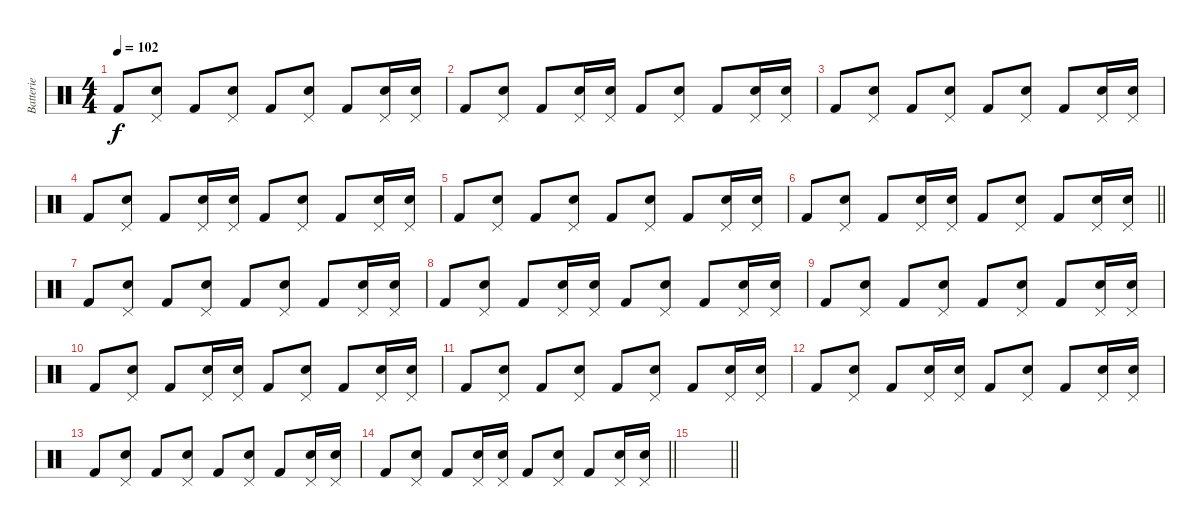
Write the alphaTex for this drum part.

\track ("Batterie" "Batterie") {instrument percussion}
\staff {score}
\articulation defaults
\ts (4 4)
\tempo 102
\clef neutral
\ks c "Kick (hit) 2".8{dy f}
("Snare (hit) 2" "Pedal Hi-Hat (hit)").8 "Kick (hit) 2".8 ("Snare (hit) 2" "Pedal Hi-Hat (hit)").8 "Kick (hit) 2".8 ("Snare (hit) 2" "Pedal Hi-Hat (hit)").8 "Kick (hit) 2".8 ("Snare (hit) 2" "Pedal Hi-Hat (hit)").16 ("Snare (hit) 2" "Pedal Hi-Hat (hit)").16 |
"Kick (hit) 2".8 ("Snare (hit) 2" "Pedal Hi-Hat (hit)").8 "Kick (hit) 2".8 ("Snare (hit) 2" "Pedal Hi-Hat (hit)").16 ("Snare (hit) 2" "Pedal Hi-Hat (hit)").16 "Kick (hit) 2".8 ("Snare (hit) 2" "Pedal Hi-Hat (hit)").8 "Kick (hit) 2".8 ("Snare (hit) 2" "Pedal Hi-Hat (hit)").16 ("Snare (hit) 2" "Pedal Hi-Hat (hit)").16 |
"Kick (hit) 2".8 ("Snare (hit) 2" "Pedal Hi-Hat (hit)").8 "Kick (hit) 2".8 ("Snare (hit) 2" "Pedal Hi-Hat (hit)").8 "Kick (hit) 2".8 ("Snare (hit) 2" "Pedal Hi-Hat (hit)").8 "Kick (hit) 2".8 ("Snare (hit) 2" "Pedal Hi-Hat (hit)").16 ("Snare (hit) 2" "Pedal Hi-Hat (hit)").16 |
"Kick (hit) 2".8 ("Snare (hit) 2" "Pedal Hi-Hat (hit)").8 "Kick (hit) 2".8 ("Snare (hit) 2" "Pedal Hi-Hat (hit)").16 ("Snare (hit) 2" "Pedal Hi-Hat (hit)").16 "Kick (hit) 2".8 ("Snare (hit) 2" "Pedal Hi-Hat (hit)").8 "Kick (hit) 2".8 ("Snare (hit) 2" "Pedal Hi-Hat (hit)").16 ("Snare (hit) 2" "Pedal Hi-Hat (hit)").16 |
"Kick (hit) 2".8 ("Snare (hit) 2" "Pedal Hi-Hat (hit)").8 "Kick (hit) 2".8 ("Snare (hit) 2" "Pedal Hi-Hat (hit)").8 "Kick (hit) 2".8 ("Snare (hit) 2" "Pedal Hi-Hat (hit)").8 "Kick (hit) 2".8 ("Snare (hit) 2" "Pedal Hi-Hat (hit)").16 ("Snare (hit) 2" "Pedal Hi-Hat (hit)").16 |
\barLineRight lightlight "Kick (hit) 2".8
("Snare (hit) 2" "Pedal Hi-Hat (hit)").8 "Kick (hit) 2".8 ("Snare (hit) 2" "Pedal Hi-Hat (hit)").16 ("Snare (hit) 2" "Pedal Hi-Hat (hit)").16 "Kick (hit) 2".8 ("Snare (hit) 2" "Pedal Hi-Hat (hit)").8 "Kick (hit) 2".8 ("Snare (hit) 2" "Pedal Hi-Hat (hit)").16 ("Snare (hit) 2" "Pedal Hi-Hat (hit)").16 |
"Kick (hit) 2".8 ("Snare (hit) 2" "Pedal Hi-Hat (hit)").8 "Kick (hit) 2".8 ("Snare (hit) 2" "Pedal Hi-Hat (hit)").8 "Kick (hit) 2".8 ("Snare (hit) 2" "Pedal Hi-Hat (hit)").8 "Kick (hit) 2".8 ("Snare (hit) 2" "Pedal Hi-Hat (hit)").16 ("Snare (hit) 2" "Pedal Hi-Hat (hit)").16 |
"Kick (hit) 2".8 ("Snare (hit) 2" "Pedal Hi-Hat (hit)").8 "Kick (hit) 2".8 ("Snare (hit) 2" "Pedal Hi-Hat (hit)").16 ("Snare (hit) 2" "Pedal Hi-Hat (hit)").16 "Kick (hit) 2".8 ("Snare (hit) 2" "Pedal Hi-Hat (hit)").8 "Kick (hit) 2".8 ("Snare (hit) 2" "Pedal Hi-Hat (hit)").16 ("Snare (hit) 2" "Pedal Hi-Hat (hit)").16 |
"Kick (hit) 2".8 ("Snare (hit) 2" "Pedal Hi-Hat (hit)").8 "Kick (hit) 2".8 ("Snare (hit) 2" "Pedal Hi-Hat (hit)").8 "Kick (hit) 2".8 ("Snare (hit) 2" "Pedal Hi-Hat (hit)").8 "Kick (hit) 2".8 ("Snare (hit) 2" "Pedal Hi-Hat (hit)").16 ("Snare (hit) 2" "Pedal Hi-Hat (hit)").16 |
"Kick (hit) 2".8 ("Snare (hit) 2" "Pedal Hi-Hat (hit)").8 "Kick (hit) 2".8 ("Snare (hit) 2" "Pedal Hi-Hat (hit)").16 ("Snare (hit) 2" "Pedal Hi-Hat (hit)").16 "Kick (hit) 2".8 ("Snare (hit) 2" "Pedal Hi-Hat (hit)").8 "Kick (hit) 2".8 ("Snare (hit) 2" "Pedal Hi-Hat (hit)").16 ("Snare (hit) 2" "Pedal Hi-Hat (hit)").16 |
"Kick (hit) 2".8 ("Snare (hit) 2" "Pedal Hi-Hat (hit)").8 "Kick (hit) 2".8 ("Snare (hit) 2" "Pedal Hi-Hat (hit)").8 "Kick (hit) 2".8 ("Snare (hit) 2" "Pedal Hi-Hat (hit)").8 "Kick (hit) 2".8 ("Snare (hit) 2" "Pedal Hi-Hat (hit)").16 ("Snare (hit) 2" "Pedal Hi-Hat (hit)").16 |
"Kick (hit) 2".8 ("Snare (hit) 2" "Pedal Hi-Hat (hit)").8 "Kick (hit) 2".8 ("Snare (hit) 2" "Pedal Hi-Hat (hit)").16 ("Snare (hit) 2" "Pedal Hi-Hat (hit)").16 "Kick (hit) 2".8 ("Snare (hit) 2" "Pedal Hi-Hat (hit)").8 "Kick (hit) 2".8 ("Snare (hit) 2" "Pedal Hi-Hat (hit)").16 ("Snare (hit) 2" "Pedal Hi-Hat (hit)").16 |
"Kick (hit) 2".8 ("Snare (hit) 2" "Pedal Hi-Hat (hit)").8 "Kick (hit) 2".8 ("Snare (hit) 2" "Pedal Hi-Hat (hit)").8 "Kick (hit) 2".8 ("Snare (hit) 2" "Pedal Hi-Hat (hit)").8 "Kick (hit) 2".8 ("Snare (hit) 2" "Pedal Hi-Hat (hit)").16 ("Snare (hit) 2" "Pedal Hi-Hat (hit)").16 |
\barLineRight lightlight "Kick (hit) 2".8
("Snare (hit) 2" "Pedal Hi-Hat (hit)").8 "Kick (hit) 2".8 ("Snare (hit) 2" "Pedal Hi-Hat (hit)").16 ("Snare (hit) 2" "Pedal Hi-Hat (hit)").16 "Kick (hit) 2".8 ("Snare (hit) 2" "Pedal Hi-Hat (hit)").8 "Kick (hit) 2".8 ("Snare (hit) 2" "Pedal Hi-Hat (hit)").16 ("Snare (hit) 2" "Pedal Hi-Hat (hit)").16 |
\barLineRight lightlight
